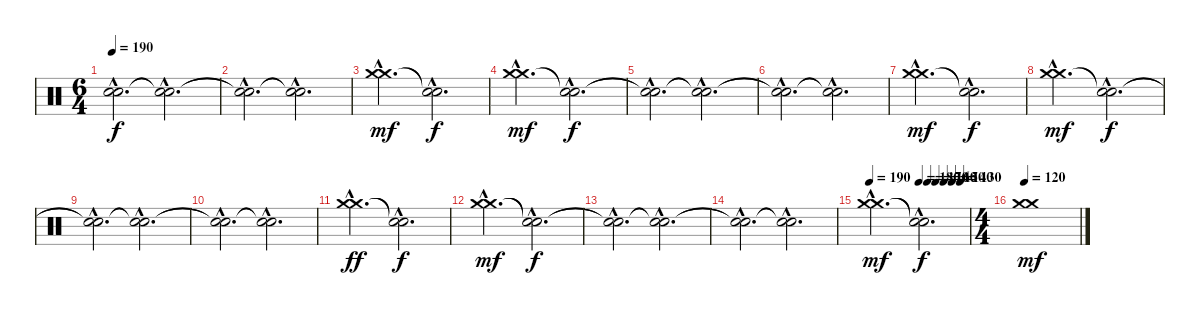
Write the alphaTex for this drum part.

\track "" {instrument percussion}
\staff {score}
\articulation defaults
\ts (6 4)
\tempo 190
\clef neutral
\ks c
("Snare (hit)"{hac t} "Snare (hit)"{hac t}).2{d dy f} ("Snare (hit)"{hac t} "Snare (hit)"{hac t}).2{d} |
("Snare (hit)"{hac t} "Snare (hit)"{hac t}).2{d} ("Snare (hit)"{hac t} "Snare (hit)"{hac t}).2{d} |
("Crash medium (hit)"{hac} "Crash medium (hit)"{hac}).2{d dy mf} ("Snare (hit)"{hac t} "Snare (hit)"{hac t}).2{d dy f} |
("Crash medium (hit)"{hac} "Crash medium (hit)"{hac}).2{d dy mf} ("Snare (hit)"{hac t} "Snare (hit)"{hac t}).2{d dy f} |
("Snare (hit)"{hac t} "Snare (hit)"{hac t}).2{d} ("Snare (hit)"{hac t} "Snare (hit)"{hac t}).2{d} |
("Snare (hit)"{hac t} "Snare (hit)"{hac t}).2{d} ("Snare (hit)"{hac t} "Snare (hit)"{hac t}).2{d} |
("Crash medium (hit)"{hac} "Crash medium (hit)"{hac}).2{d dy mf} ("Snare (hit)"{hac t} "Snare (hit)"{hac t}).2{d dy f} |
("Crash medium (hit)"{hac} "Crash medium (hit)"{hac}).2{d dy mf} ("Snare (hit)"{hac t} "Snare (hit)"{hac t}).2{d dy f} |
("Snare (hit)"{hac t} "Snare (hit)"{hac t}).2{d} ("Snare (hit)"{hac t} "Snare (hit)"{hac t}).2{d} |
("Snare (hit)"{hac t} "Snare (hit)"{hac t}).2{d} ("Snare (hit)"{hac t} "Snare (hit)"{hac t}).2{d} |
("Crash medium (hit)"{hac} "Crash medium (hit)"{hac}).2{d dy ff} ("Snare (hit)"{hac t} "Snare (hit)"{hac t}).2{d dy f} |
("Crash medium (hit)"{hac} "Crash medium (hit)"{hac}).2{d dy mf} ("Snare (hit)"{hac t} "Snare (hit)"{hac t}).2{d dy f} |
("Snare (hit)"{hac t} "Snare (hit)"{hac t}).2{d} ("Snare (hit)"{hac t} "Snare (hit)"{hac t}).2{d} |
("Snare (hit)"{hac t} "Snare (hit)"{hac t}).2{d} ("Snare (hit)"{hac t} "Snare (hit)"{hac t}).2{d} |
\tempo 190
\tempo (180 0.5)
\tempo (170 0.5833333333333334)
\tempo (160 0.6666666666666666)
\tempo (150 0.75)
\tempo (140 0.8333333333333334)
\tempo (130 0.9166666666666666)
("Crash medium (hit)"{hac} "Crash medium (hit)"{hac}).2{d dy mf} ("Snare (hit)"{hac t} "Snare (hit)"{hac t}).2{d dy f} |
\ts (4 4)
\tempo 120
("Crash medium (hit)" "Crash medium (hit)").1{dy mf}
